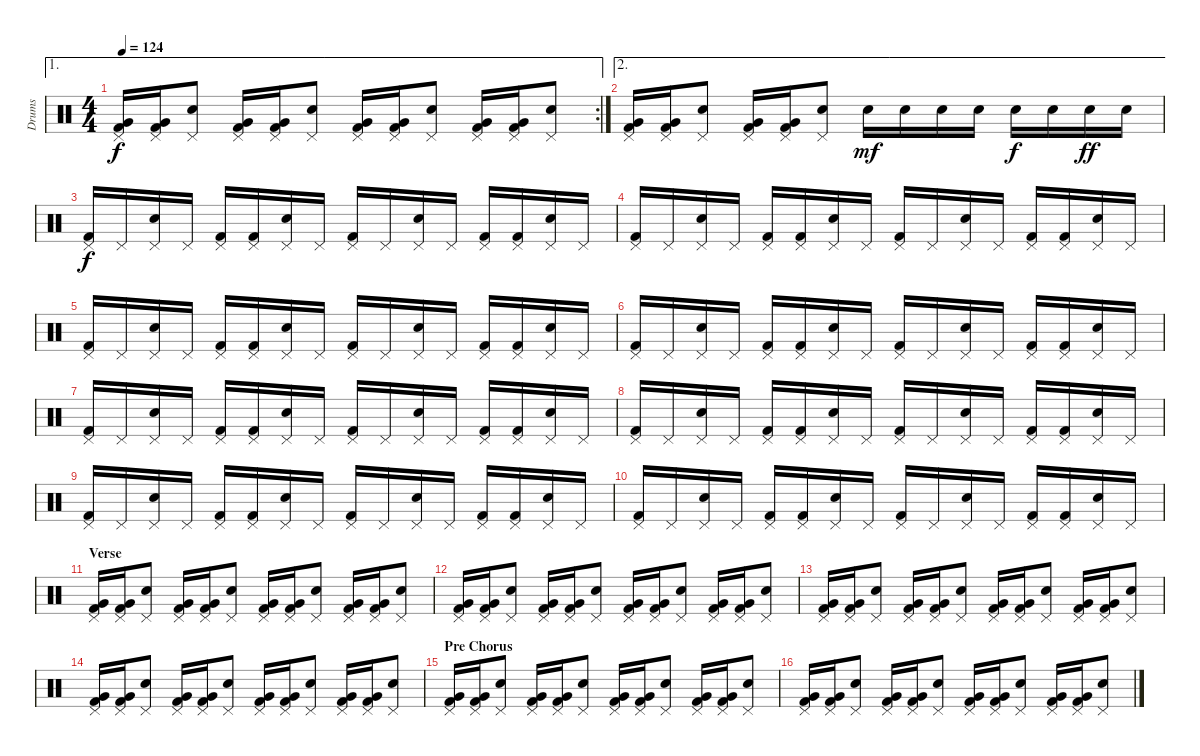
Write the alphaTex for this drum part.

\track ("Drums" "Drums") {instrument percussion}
\staff {score}
\articulation defaults
\ae 1
\rc 2
\ts (4 4)
\tempo 124
\clef neutral
\ks c
("Pedal Hi-Hat (hit)" "Very Low Tom (hit)" "Kick (hit) 2").16{dy f} ("Pedal Hi-Hat (hit)" "Very Low Tom (hit)" "Kick (hit) 2").16 ("Pedal Hi-Hat (hit)" "Electric Snare (hit)").8 ("Pedal Hi-Hat (hit)" "Very Low Tom (hit)" "Kick (hit) 2").16 ("Pedal Hi-Hat (hit)" "Very Low Tom (hit)" "Kick (hit) 2").16 ("Pedal Hi-Hat (hit)" "Electric Snare (hit)").8 ("Pedal Hi-Hat (hit)" "Very Low Tom (hit)" "Kick (hit) 2").16 ("Pedal Hi-Hat (hit)" "Very Low Tom (hit)" "Kick (hit) 2").16 ("Pedal Hi-Hat (hit)" "Electric Snare (hit)").8 ("Pedal Hi-Hat (hit)" "Very Low Tom (hit)" "Kick (hit) 2").16 ("Pedal Hi-Hat (hit)" "Very Low Tom (hit)" "Kick (hit) 2").16 ("Pedal Hi-Hat (hit)" "Electric Snare (hit)").8 |
\ae 2
("Pedal Hi-Hat (hit)" "Very Low Tom (hit)" "Kick (hit) 2").16 ("Pedal Hi-Hat (hit)" "Very Low Tom (hit)" "Kick (hit) 2").16 ("Pedal Hi-Hat (hit)" "Electric Snare (hit)").8 ("Pedal Hi-Hat (hit)" "Very Low Tom (hit)" "Kick (hit) 2").16 ("Pedal Hi-Hat (hit)" "Very Low Tom (hit)" "Kick (hit) 2").16 ("Pedal Hi-Hat (hit)" "Electric Snare (hit)").8 "Electric Snare (hit)".16{dy mf} "Electric Snare (hit)".16 "Electric Snare (hit)".16 "Electric Snare (hit)".16 "Electric Snare (hit)".16{dy f} "Electric Snare (hit)".16 "Electric Snare (hit)".16{dy ff} "Electric Snare (hit)".16 |
("Pedal Hi-Hat (hit)" "Kick (hit) 2").16{dy f} "Pedal Hi-Hat (hit)".16 ("Pedal Hi-Hat (hit)" "Electric Snare (hit)").16 "Pedal Hi-Hat (hit)".16 ("Pedal Hi-Hat (hit)" "Kick (hit) 2").16 ("Pedal Hi-Hat (hit)" "Kick (hit) 2").16 ("Pedal Hi-Hat (hit)" "Electric Snare (hit)").16 "Pedal Hi-Hat (hit)".16 ("Pedal Hi-Hat (hit)" "Kick (hit) 2").16 "Pedal Hi-Hat (hit)".16 ("Pedal Hi-Hat (hit)" "Electric Snare (hit)").16 "Pedal Hi-Hat (hit)".16 ("Pedal Hi-Hat (hit)" "Kick (hit) 2").16 ("Pedal Hi-Hat (hit)" "Kick (hit) 2").16 ("Pedal Hi-Hat (hit)" "Electric Snare (hit)").16 "Pedal Hi-Hat (hit)".16 |
("Pedal Hi-Hat (hit)" "Kick (hit) 2").16 "Pedal Hi-Hat (hit)".16 ("Pedal Hi-Hat (hit)" "Electric Snare (hit)").16 "Pedal Hi-Hat (hit)".16 ("Pedal Hi-Hat (hit)" "Kick (hit) 2").16 ("Pedal Hi-Hat (hit)" "Kick (hit) 2").16 ("Pedal Hi-Hat (hit)" "Electric Snare (hit)").16 "Pedal Hi-Hat (hit)".16 ("Pedal Hi-Hat (hit)" "Kick (hit) 2").16 "Pedal Hi-Hat (hit)".16 ("Pedal Hi-Hat (hit)" "Electric Snare (hit)").16 "Pedal Hi-Hat (hit)".16 ("Pedal Hi-Hat (hit)" "Kick (hit) 2").16 ("Pedal Hi-Hat (hit)" "Kick (hit) 2").16 ("Pedal Hi-Hat (hit)" "Electric Snare (hit)").16 "Pedal Hi-Hat (hit)".16 |
("Pedal Hi-Hat (hit)" "Kick (hit) 2").16 "Pedal Hi-Hat (hit)".16 ("Pedal Hi-Hat (hit)" "Electric Snare (hit)").16 "Pedal Hi-Hat (hit)".16 ("Pedal Hi-Hat (hit)" "Kick (hit) 2").16 ("Pedal Hi-Hat (hit)" "Kick (hit) 2").16 ("Pedal Hi-Hat (hit)" "Electric Snare (hit)").16 "Pedal Hi-Hat (hit)".16 ("Pedal Hi-Hat (hit)" "Kick (hit) 2").16 "Pedal Hi-Hat (hit)".16 ("Pedal Hi-Hat (hit)" "Electric Snare (hit)").16 "Pedal Hi-Hat (hit)".16 ("Pedal Hi-Hat (hit)" "Kick (hit) 2").16 ("Pedal Hi-Hat (hit)" "Kick (hit) 2").16 ("Pedal Hi-Hat (hit)" "Electric Snare (hit)").16 "Pedal Hi-Hat (hit)".16 |
("Pedal Hi-Hat (hit)" "Kick (hit) 2").16 "Pedal Hi-Hat (hit)".16 ("Pedal Hi-Hat (hit)" "Electric Snare (hit)").16 "Pedal Hi-Hat (hit)".16 ("Pedal Hi-Hat (hit)" "Kick (hit) 2").16 ("Pedal Hi-Hat (hit)" "Kick (hit) 2").16 ("Pedal Hi-Hat (hit)" "Electric Snare (hit)").16 "Pedal Hi-Hat (hit)".16 ("Pedal Hi-Hat (hit)" "Kick (hit) 2").16 "Pedal Hi-Hat (hit)".16 ("Pedal Hi-Hat (hit)" "Electric Snare (hit)").16 "Pedal Hi-Hat (hit)".16 ("Pedal Hi-Hat (hit)" "Kick (hit) 2").16 ("Pedal Hi-Hat (hit)" "Kick (hit) 2").16 ("Pedal Hi-Hat (hit)" "Electric Snare (hit)").16 "Pedal Hi-Hat (hit)".16 |
("Pedal Hi-Hat (hit)" "Kick (hit) 2").16 "Pedal Hi-Hat (hit)".16 ("Pedal Hi-Hat (hit)" "Electric Snare (hit)").16 "Pedal Hi-Hat (hit)".16 ("Pedal Hi-Hat (hit)" "Kick (hit) 2").16 ("Pedal Hi-Hat (hit)" "Kick (hit) 2").16 ("Pedal Hi-Hat (hit)" "Electric Snare (hit)").16 "Pedal Hi-Hat (hit)".16 ("Pedal Hi-Hat (hit)" "Kick (hit) 2").16 "Pedal Hi-Hat (hit)".16 ("Pedal Hi-Hat (hit)" "Electric Snare (hit)").16 "Pedal Hi-Hat (hit)".16 ("Pedal Hi-Hat (hit)" "Kick (hit) 2").16 ("Pedal Hi-Hat (hit)" "Kick (hit) 2").16 ("Pedal Hi-Hat (hit)" "Electric Snare (hit)").16 "Pedal Hi-Hat (hit)".16 |
("Pedal Hi-Hat (hit)" "Kick (hit) 2").16 "Pedal Hi-Hat (hit)".16 ("Pedal Hi-Hat (hit)" "Electric Snare (hit)").16 "Pedal Hi-Hat (hit)".16 ("Pedal Hi-Hat (hit)" "Kick (hit) 2").16 ("Pedal Hi-Hat (hit)" "Kick (hit) 2").16 ("Pedal Hi-Hat (hit)" "Electric Snare (hit)").16 "Pedal Hi-Hat (hit)".16 ("Pedal Hi-Hat (hit)" "Kick (hit) 2").16 "Pedal Hi-Hat (hit)".16 ("Pedal Hi-Hat (hit)" "Electric Snare (hit)").16 "Pedal Hi-Hat (hit)".16 ("Pedal Hi-Hat (hit)" "Kick (hit) 2").16 ("Pedal Hi-Hat (hit)" "Kick (hit) 2").16 ("Pedal Hi-Hat (hit)" "Electric Snare (hit)").16 "Pedal Hi-Hat (hit)".16 |
("Pedal Hi-Hat (hit)" "Kick (hit) 2").16 "Pedal Hi-Hat (hit)".16 ("Pedal Hi-Hat (hit)" "Electric Snare (hit)").16 "Pedal Hi-Hat (hit)".16 ("Pedal Hi-Hat (hit)" "Kick (hit) 2").16 ("Pedal Hi-Hat (hit)" "Kick (hit) 2").16 ("Pedal Hi-Hat (hit)" "Electric Snare (hit)").16 "Pedal Hi-Hat (hit)".16 ("Pedal Hi-Hat (hit)" "Kick (hit) 2").16 "Pedal Hi-Hat (hit)".16 ("Pedal Hi-Hat (hit)" "Electric Snare (hit)").16 "Pedal Hi-Hat (hit)".16 ("Pedal Hi-Hat (hit)" "Kick (hit) 2").16 ("Pedal Hi-Hat (hit)" "Kick (hit) 2").16 ("Pedal Hi-Hat (hit)" "Electric Snare (hit)").16 "Pedal Hi-Hat (hit)".16 |
("Pedal Hi-Hat (hit)" "Kick (hit) 2").16 "Pedal Hi-Hat (hit)".16 ("Pedal Hi-Hat (hit)" "Electric Snare (hit)").16 "Pedal Hi-Hat (hit)".16 ("Pedal Hi-Hat (hit)" "Kick (hit) 2").16 ("Pedal Hi-Hat (hit)" "Kick (hit) 2").16 ("Pedal Hi-Hat (hit)" "Electric Snare (hit)").16 "Pedal Hi-Hat (hit)".16 ("Pedal Hi-Hat (hit)" "Kick (hit) 2").16 "Pedal Hi-Hat (hit)".16 ("Pedal Hi-Hat (hit)" "Electric Snare (hit)").16 "Pedal Hi-Hat (hit)".16 ("Pedal Hi-Hat (hit)" "Kick (hit) 2").16 ("Pedal Hi-Hat (hit)" "Kick (hit) 2").16 ("Pedal Hi-Hat (hit)" "Electric Snare (hit)").16 "Pedal Hi-Hat (hit)".16 |
\section ("" "Verse")
("Pedal Hi-Hat (hit)" "Very Low Tom (hit)" "Kick (hit) 2").16 ("Pedal Hi-Hat (hit)" "Very Low Tom (hit)" "Kick (hit) 2").16 ("Pedal Hi-Hat (hit)" "Electric Snare (hit)").8 ("Pedal Hi-Hat (hit)" "Very Low Tom (hit)" "Kick (hit) 2").16 ("Pedal Hi-Hat (hit)" "Very Low Tom (hit)" "Kick (hit) 2").16 ("Pedal Hi-Hat (hit)" "Electric Snare (hit)").8 ("Pedal Hi-Hat (hit)" "Very Low Tom (hit)" "Kick (hit) 2").16 ("Pedal Hi-Hat (hit)" "Very Low Tom (hit)" "Kick (hit) 2").16 ("Pedal Hi-Hat (hit)" "Electric Snare (hit)").8 ("Pedal Hi-Hat (hit)" "Very Low Tom (hit)" "Kick (hit) 2").16 ("Pedal Hi-Hat (hit)" "Very Low Tom (hit)" "Kick (hit) 2").16 ("Pedal Hi-Hat (hit)" "Electric Snare (hit)").8 |
("Pedal Hi-Hat (hit)" "Very Low Tom (hit)" "Kick (hit) 2").16 ("Pedal Hi-Hat (hit)" "Very Low Tom (hit)" "Kick (hit) 2").16 ("Pedal Hi-Hat (hit)" "Electric Snare (hit)").8 ("Pedal Hi-Hat (hit)" "Very Low Tom (hit)" "Kick (hit) 2").16 ("Pedal Hi-Hat (hit)" "Very Low Tom (hit)" "Kick (hit) 2").16 ("Pedal Hi-Hat (hit)" "Electric Snare (hit)").8 ("Pedal Hi-Hat (hit)" "Very Low Tom (hit)" "Kick (hit) 2").16 ("Pedal Hi-Hat (hit)" "Very Low Tom (hit)" "Kick (hit) 2").16 ("Pedal Hi-Hat (hit)" "Electric Snare (hit)").8 ("Pedal Hi-Hat (hit)" "Very Low Tom (hit)" "Kick (hit) 2").16 ("Pedal Hi-Hat (hit)" "Very Low Tom (hit)" "Kick (hit) 2").16 ("Pedal Hi-Hat (hit)" "Electric Snare (hit)").8 |
("Pedal Hi-Hat (hit)" "Very Low Tom (hit)" "Kick (hit) 2").16 ("Pedal Hi-Hat (hit)" "Very Low Tom (hit)" "Kick (hit) 2").16 ("Pedal Hi-Hat (hit)" "Electric Snare (hit)").8 ("Pedal Hi-Hat (hit)" "Very Low Tom (hit)" "Kick (hit) 2").16 ("Pedal Hi-Hat (hit)" "Very Low Tom (hit)" "Kick (hit) 2").16 ("Pedal Hi-Hat (hit)" "Electric Snare (hit)").8 ("Pedal Hi-Hat (hit)" "Very Low Tom (hit)" "Kick (hit) 2").16 ("Pedal Hi-Hat (hit)" "Very Low Tom (hit)" "Kick (hit) 2").16 ("Pedal Hi-Hat (hit)" "Electric Snare (hit)").8 ("Pedal Hi-Hat (hit)" "Very Low Tom (hit)" "Kick (hit) 2").16 ("Pedal Hi-Hat (hit)" "Very Low Tom (hit)" "Kick (hit) 2").16 ("Pedal Hi-Hat (hit)" "Electric Snare (hit)").8 |
("Pedal Hi-Hat (hit)" "Very Low Tom (hit)" "Kick (hit) 2").16 ("Pedal Hi-Hat (hit)" "Very Low Tom (hit)" "Kick (hit) 2").16 ("Pedal Hi-Hat (hit)" "Electric Snare (hit)").8 ("Pedal Hi-Hat (hit)" "Very Low Tom (hit)" "Kick (hit) 2").16 ("Pedal Hi-Hat (hit)" "Very Low Tom (hit)" "Kick (hit) 2").16 ("Pedal Hi-Hat (hit)" "Electric Snare (hit)").8 ("Pedal Hi-Hat (hit)" "Very Low Tom (hit)" "Kick (hit) 2").16 ("Pedal Hi-Hat (hit)" "Very Low Tom (hit)" "Kick (hit) 2").16 ("Pedal Hi-Hat (hit)" "Electric Snare (hit)").8 ("Pedal Hi-Hat (hit)" "Very Low Tom (hit)" "Kick (hit) 2").16 ("Pedal Hi-Hat (hit)" "Very Low Tom (hit)" "Kick (hit) 2").16 ("Pedal Hi-Hat (hit)" "Electric Snare (hit)").8 |
\section ("" "Pre Chorus")
("Pedal Hi-Hat (hit)" "Very Low Tom (hit)" "Kick (hit) 2").16 ("Pedal Hi-Hat (hit)" "Very Low Tom (hit)" "Kick (hit) 2").16 ("Pedal Hi-Hat (hit)" "Electric Snare (hit)").8 ("Pedal Hi-Hat (hit)" "Very Low Tom (hit)" "Kick (hit) 2").16 ("Pedal Hi-Hat (hit)" "Very Low Tom (hit)" "Kick (hit) 2").16 ("Pedal Hi-Hat (hit)" "Electric Snare (hit)").8 ("Pedal Hi-Hat (hit)" "Very Low Tom (hit)" "Kick (hit) 2").16 ("Pedal Hi-Hat (hit)" "Very Low Tom (hit)" "Kick (hit) 2").16 ("Pedal Hi-Hat (hit)" "Electric Snare (hit)").8 ("Pedal Hi-Hat (hit)" "Very Low Tom (hit)" "Kick (hit) 2").16 ("Pedal Hi-Hat (hit)" "Very Low Tom (hit)" "Kick (hit) 2").16 ("Pedal Hi-Hat (hit)" "Electric Snare (hit)").8 |
("Pedal Hi-Hat (hit)" "Very Low Tom (hit)" "Kick (hit) 2").16 ("Pedal Hi-Hat (hit)" "Very Low Tom (hit)" "Kick (hit) 2").16 ("Pedal Hi-Hat (hit)" "Electric Snare (hit)").8 ("Pedal Hi-Hat (hit)" "Very Low Tom (hit)" "Kick (hit) 2").16 ("Pedal Hi-Hat (hit)" "Very Low Tom (hit)" "Kick (hit) 2").16 ("Pedal Hi-Hat (hit)" "Electric Snare (hit)").8 ("Pedal Hi-Hat (hit)" "Very Low Tom (hit)" "Kick (hit) 2").16 ("Pedal Hi-Hat (hit)" "Very Low Tom (hit)" "Kick (hit) 2").16 ("Pedal Hi-Hat (hit)" "Electric Snare (hit)").8 ("Pedal Hi-Hat (hit)" "Very Low Tom (hit)" "Kick (hit) 2").16 ("Pedal Hi-Hat (hit)" "Very Low Tom (hit)" "Kick (hit) 2").16 ("Pedal Hi-Hat (hit)" "Electric Snare (hit)").8
